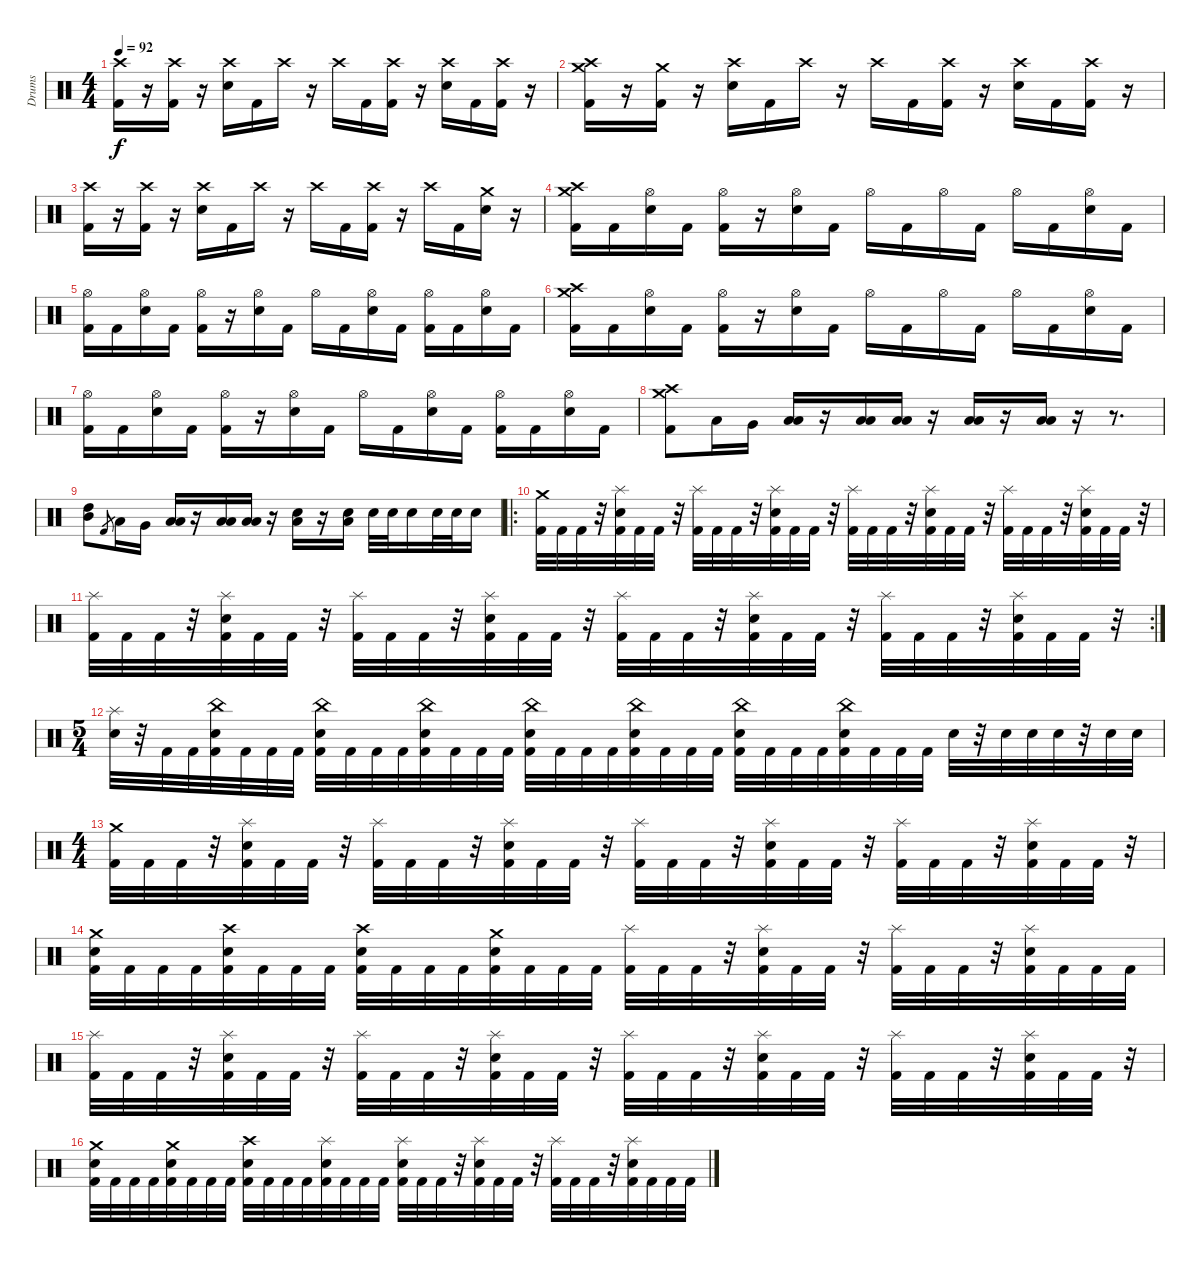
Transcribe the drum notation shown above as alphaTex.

\track ("Drums" "Drums") {instrument percussion}
\staff {score}
\articulation defaults
\ts (4 4)
\tempo 92
\clef neutral
\ks c
("Crash high (hit)" "Kick (hit) 2").16{dy f} r.16 ("Crash high (hit)" "Kick (hit) 2").16 r.16 ("Crash high (hit)" "Snare (hit) 2").16 "Kick (hit) 2".16 "Crash high (hit)".16 r.16 "Crash high (hit)".16 "Kick (hit) 2".16 ("Crash high (hit)" "Kick (hit) 2").16 r.16 ("Crash high (hit)" "Snare (hit) 2").16 "Kick (hit) 2".16 ("Crash high (hit)" "Kick (hit) 2").16 r.16 |
("Crash high (hit)" "Crash medium (hit)" "Kick (hit) 2").16 r.16 ("Crash medium (hit)" "Kick (hit) 2").16 r.16 ("Crash high (hit)" "Snare (hit) 2").16 "Kick (hit) 2".16 "Crash high (hit)".16 r.16 "Crash high (hit)".16 "Kick (hit) 2".16 ("Crash high (hit)" "Kick (hit) 2").16 r.16 ("Crash high (hit)" "Snare (hit) 2").16 "Kick (hit) 2".16 ("Crash high (hit)" "Kick (hit) 2").16 r.16 |
("Crash high (hit)" "Kick (hit) 2").16 r.16 ("Crash high (hit)" "Kick (hit) 2").16 r.16 ("Crash high (hit)" "Snare (hit) 2").16 "Kick (hit) 2".16 "Crash high (hit)".16 r.16 "Crash high (hit)".16 "Kick (hit) 2".16 ("Crash high (hit)" "Kick (hit) 2").16 r.16 "Crash high (hit)".16 "Kick (hit) 2".16 ("Crash medium (hit)" "Snare (hit) 2").16 r.16 |
("Crash high (hit)" "Crash medium (hit)" "Kick (hit) 2").16 "Kick (hit) 2".16 ("Hi-Hat (open)" "Snare (hit) 2").16 "Kick (hit) 2".16 ("Hi-Hat (open)" "Kick (hit) 2").16 r.16 ("Hi-Hat (open)" "Snare (hit) 2").16 "Kick (hit) 2".16 "Hi-Hat (open)".16 "Kick (hit) 2".16 "Hi-Hat (open)".16 "Kick (hit) 2".16 "Hi-Hat (open)".16 "Kick (hit) 2".16 ("Hi-Hat (open)" "Snare (hit) 2").16 "Kick (hit) 2".16 |
("Hi-Hat (open)" "Kick (hit) 2").16 "Kick (hit) 2".16 ("Hi-Hat (open)" "Snare (hit) 2").16 "Kick (hit) 2".16 ("Hi-Hat (open)" "Kick (hit) 2").16 r.16 ("Hi-Hat (open)" "Snare (hit) 2").16 "Kick (hit) 2".16 "Hi-Hat (open)".16 "Kick (hit) 2".16 ("Hi-Hat (open)" "Snare (hit) 2").16 "Kick (hit) 2".16 ("Hi-Hat (open)" "Kick (hit) 2").16 "Kick (hit) 2".16 ("Hi-Hat (open)" "Snare (hit) 2").16 "Kick (hit) 2".16 |
("Crash high (hit)" "Crash medium (hit)" "Kick (hit) 2").16 "Kick (hit) 2".16 ("Hi-Hat (open)" "Snare (hit) 2").16 "Kick (hit) 2".16 ("Hi-Hat (open)" "Kick (hit) 2").16 r.16 ("Hi-Hat (open)" "Snare (hit) 2").16 "Kick (hit) 2".16 "Hi-Hat (open)".16 "Kick (hit) 2".16 "Hi-Hat (open)".16 "Kick (hit) 2".16 "Hi-Hat (open)".16 "Kick (hit) 2".16 ("Hi-Hat (open)" "Snare (hit) 2").16 "Kick (hit) 2".16 |
("Hi-Hat (open)" "Kick (hit) 2").16 "Kick (hit) 2".16 ("Hi-Hat (open)" "Snare (hit) 2").16 "Kick (hit) 2".16 ("Hi-Hat (open)" "Kick (hit) 2").16 r.16 ("Hi-Hat (open)" "Snare (hit) 2").16 "Kick (hit) 2".16 "Hi-Hat (open)".16 "Kick (hit) 2".16 ("Hi-Hat (open)" "Snare (hit) 2").16 "Kick (hit) 2".16 ("Hi-Hat (open)" "Kick (hit) 2").16 "Kick (hit) 2".16 ("Hi-Hat (open)" "Snare (hit) 2").16 "Kick (hit) 2".16 |
("Crash high (hit)" "Crash medium (hit)" "Kick (hit) 2").8 "Low Tom (hit)".16 "Very Low Tom (hit)".16 ("Low Tom (hit)" "Low Floor Tom (hit)").16 r.16 ("Low Tom (hit)" "Low Floor Tom (hit)").16 ("Low Tom (hit)" "Low Floor Tom (hit)").16 r.16 ("Low Tom (hit)" "Low Floor Tom (hit)").16 r.16 ("Low Tom (hit)" "Low Floor Tom (hit)").16 r.16 r.8{d} |
("Mid Tom (hit)" "High Tom (hit)").8 "Kick (hit) 2".8{gr} "Low Tom (hit)".16 "Very Low Tom (hit)".16 ("Low Tom (hit)" "Low Floor Tom (hit)").16 r.16 ("Low Tom (hit)" "Low Floor Tom (hit)").16 ("Low Tom (hit)" "Low Floor Tom (hit)").16 r.16 ("Snare (hit) 2" "Low Floor Tom (hit)").16 r.16 ("Snare (hit) 2" "Low Floor Tom (hit)").16 "Snare (hit) 2".32 "Snare (hit) 2".32 "Snare (hit) 2".16 "Snare (hit) 2".32 "Snare (hit) 2".32 "Snare (hit) 2".16 |
\ro
("Crash medium (hit)" "Kick (hit) 2").32 "Kick (hit) 2".32 "Kick (hit) 2".32 r.32 ("Splash (hit)" "Snare (hit) 2" "Kick (hit) 2").32 "Kick (hit) 2".32 "Kick (hit) 2".32 r.32 ("Splash (hit)" "Kick (hit) 2").32 "Kick (hit) 2".32 "Kick (hit) 2".32 r.32 ("Splash (hit)" "Snare (hit) 2" "Kick (hit) 2").32 "Kick (hit) 2".32 "Kick (hit) 2".32 r.32 ("Splash (hit)" "Kick (hit) 2").32 "Kick (hit) 2".32 "Kick (hit) 2".32 r.32 ("Splash (hit)" "Snare (hit) 2" "Kick (hit) 2").32 "Kick (hit) 2".32 "Kick (hit) 2".32 r.32 ("Splash (hit)" "Kick (hit) 2").32 "Kick (hit) 2".32 "Kick (hit) 2".32 r.32 ("Splash (hit)" "Snare (hit) 2" "Kick (hit) 2").32 "Kick (hit) 2".32 "Kick (hit) 2".32 r.32 |
\rc 2
("Splash (hit)" "Kick (hit) 2").32 "Kick (hit) 2".32 "Kick (hit) 2".32 r.32 ("Splash (hit)" "Snare (hit) 2" "Kick (hit) 2").32 "Kick (hit) 2".32 "Kick (hit) 2".32 r.32 ("Splash (hit)" "Kick (hit) 2").32 "Kick (hit) 2".32 "Kick (hit) 2".32 r.32 ("Splash (hit)" "Snare (hit) 2" "Kick (hit) 2").32 "Kick (hit) 2".32 "Kick (hit) 2".32 r.32 ("Splash (hit)" "Kick (hit) 2").32 "Kick (hit) 2".32 "Kick (hit) 2".32 r.32 ("Splash (hit)" "Snare (hit) 2" "Kick (hit) 2").32 "Kick (hit) 2".32 "Kick (hit) 2".32 r.32 ("Splash (hit)" "Kick (hit) 2").32 "Kick (hit) 2".32 "Kick (hit) 2".32 r.32 ("Splash (hit)" "Snare (hit) 2" "Kick (hit) 2").32 "Kick (hit) 2".32 "Kick (hit) 2".32 r.32 |
\ts (5 4)
("Splash (hit)" "Snare (hit) 2").32 r.32 "Kick (hit) 2".32 "Kick (hit) 2".32 ("China (hit)" "Snare (hit) 2" "Kick (hit) 2").32 "Kick (hit) 2".32 "Kick (hit) 2".32 "Kick (hit) 2".32 ("China (hit)" "Snare (hit) 2" "Kick (hit) 2").32 "Kick (hit) 2".32 "Kick (hit) 2".32 "Kick (hit) 2".32 ("China (hit)" "Snare (hit) 2" "Kick (hit) 2").32 "Kick (hit) 2".32 "Kick (hit) 2".32 "Kick (hit) 2".32 ("China (hit)" "Snare (hit) 2" "Kick (hit) 2").32 "Kick (hit) 2".32 "Kick (hit) 2".32 "Kick (hit) 2".32 ("China (hit)" "Snare (hit) 2" "Kick (hit) 2").32 "Kick (hit) 2".32 "Kick (hit) 2".32 "Kick (hit) 2".32 ("China (hit)" "Snare (hit) 2" "Kick (hit) 2").32 "Kick (hit) 2".32 "Kick (hit) 2".32 "Kick (hit) 2".32 ("China (hit)" "Snare (hit) 2" "Kick (hit) 2").32 "Kick (hit) 2".32 "Kick (hit) 2".32 "Kick (hit) 2".32 "Snare (hit) 2".32 r.32 "Snare (hit) 2".32 "Snare (hit) 2".32 "Snare (hit) 2".32 r.32 "Snare (hit) 2".32 "Snare (hit) 2".32 |
\ts (4 4)
("Crash medium (hit)" "Kick (hit) 2").32 "Kick (hit) 2".32 "Kick (hit) 2".32 r.32 ("Splash (hit)" "Snare (hit) 2" "Kick (hit) 2").32 "Kick (hit) 2".32 "Kick (hit) 2".32 r.32 ("Splash (hit)" "Kick (hit) 2").32 "Kick (hit) 2".32 "Kick (hit) 2".32 r.32 ("Splash (hit)" "Snare (hit) 2" "Kick (hit) 2").32 "Kick (hit) 2".32 "Kick (hit) 2".32 r.32 ("Splash (hit)" "Kick (hit) 2").32 "Kick (hit) 2".32 "Kick (hit) 2".32 r.32 ("Splash (hit)" "Snare (hit) 2" "Kick (hit) 2").32 "Kick (hit) 2".32 "Kick (hit) 2".32 r.32 ("Splash (hit)" "Kick (hit) 2").32 "Kick (hit) 2".32 "Kick (hit) 2".32 r.32 ("Splash (hit)" "Snare (hit) 2" "Kick (hit) 2").32 "Kick (hit) 2".32 "Kick (hit) 2".32 r.32 |
("Crash medium (hit)" "Snare (hit) 2" "Kick (hit) 2").32 "Kick (hit) 2".32 "Kick (hit) 2".32 "Kick (hit) 2".32 ("Crash high (hit)" "Snare (hit) 2" "Kick (hit) 2").32 "Kick (hit) 2".32 "Kick (hit) 2".32 "Kick (hit) 2".32 ("Crash high (hit)" "Snare (hit) 2" "Kick (hit) 2").32 "Kick (hit) 2".32 "Kick (hit) 2".32 "Kick (hit) 2".32 ("Crash medium (hit)" "Snare (hit) 2" "Kick (hit) 2").32 "Kick (hit) 2".32 "Kick (hit) 2".32 "Kick (hit) 2".32 ("Splash (hit)" "Kick (hit) 2").32 "Kick (hit) 2".32 "Kick (hit) 2".32 r.32 ("Splash (hit)" "Snare (hit) 2" "Kick (hit) 2").32 "Kick (hit) 2".32 "Kick (hit) 2".32 r.32 ("Splash (hit)" "Kick (hit) 2").32 "Kick (hit) 2".32 "Kick (hit) 2".32 r.32 ("Splash (hit)" "Snare (hit) 2" "Kick (hit) 2").32 "Kick (hit) 2".32 "Kick (hit) 2".32 "Kick (hit) 2".32 |
("Splash (hit)" "Kick (hit) 2").32 "Kick (hit) 2".32 "Kick (hit) 2".32 r.32 ("Splash (hit)" "Snare (hit) 2" "Kick (hit) 2").32 "Kick (hit) 2".32 "Kick (hit) 2".32 r.32 ("Splash (hit)" "Kick (hit) 2").32 "Kick (hit) 2".32 "Kick (hit) 2".32 r.32 ("Splash (hit)" "Snare (hit) 2" "Kick (hit) 2").32 "Kick (hit) 2".32 "Kick (hit) 2".32 r.32 ("Splash (hit)" "Kick (hit) 2").32 "Kick (hit) 2".32 "Kick (hit) 2".32 r.32 ("Splash (hit)" "Snare (hit) 2" "Kick (hit) 2").32 "Kick (hit) 2".32 "Kick (hit) 2".32 r.32 ("Splash (hit)" "Kick (hit) 2").32 "Kick (hit) 2".32 "Kick (hit) 2".32 r.32 ("Splash (hit)" "Snare (hit) 2" "Kick (hit) 2").32 "Kick (hit) 2".32 "Kick (hit) 2".32 r.32 |
("Crash medium (hit)" "Snare (hit) 2" "Kick (hit) 2").32 "Kick (hit) 2".32 "Kick (hit) 2".32 "Kick (hit) 2".32 ("Crash medium (hit)" "Snare (hit) 2" "Kick (hit) 2").32 "Kick (hit) 2".32 "Kick (hit) 2".32 "Kick (hit) 2".32 ("Crash high (hit)" "Snare (hit) 2" "Kick (hit) 2").32 "Kick (hit) 2".32 "Kick (hit) 2".32 "Kick (hit) 2".32 ("Splash (hit)" "Snare (hit) 2" "Kick (hit) 2").32 "Kick (hit) 2".32 "Kick (hit) 2".32 "Kick (hit) 2".32 ("Splash (hit)" "Snare (hit) 2" "Kick (hit) 2").32 "Kick (hit) 2".32 "Kick (hit) 2".32 r.32 ("Splash (hit)" "Snare (hit) 2" "Kick (hit) 2").32 "Kick (hit) 2".32 "Kick (hit) 2".32 r.32 ("Splash (hit)" "Kick (hit) 2").32 "Kick (hit) 2".32 "Kick (hit) 2".32 r.32 ("Splash (hit)" "Snare (hit) 2" "Kick (hit) 2").32 "Kick (hit) 2".32 "Kick (hit) 2".32 "Kick (hit) 2".32
